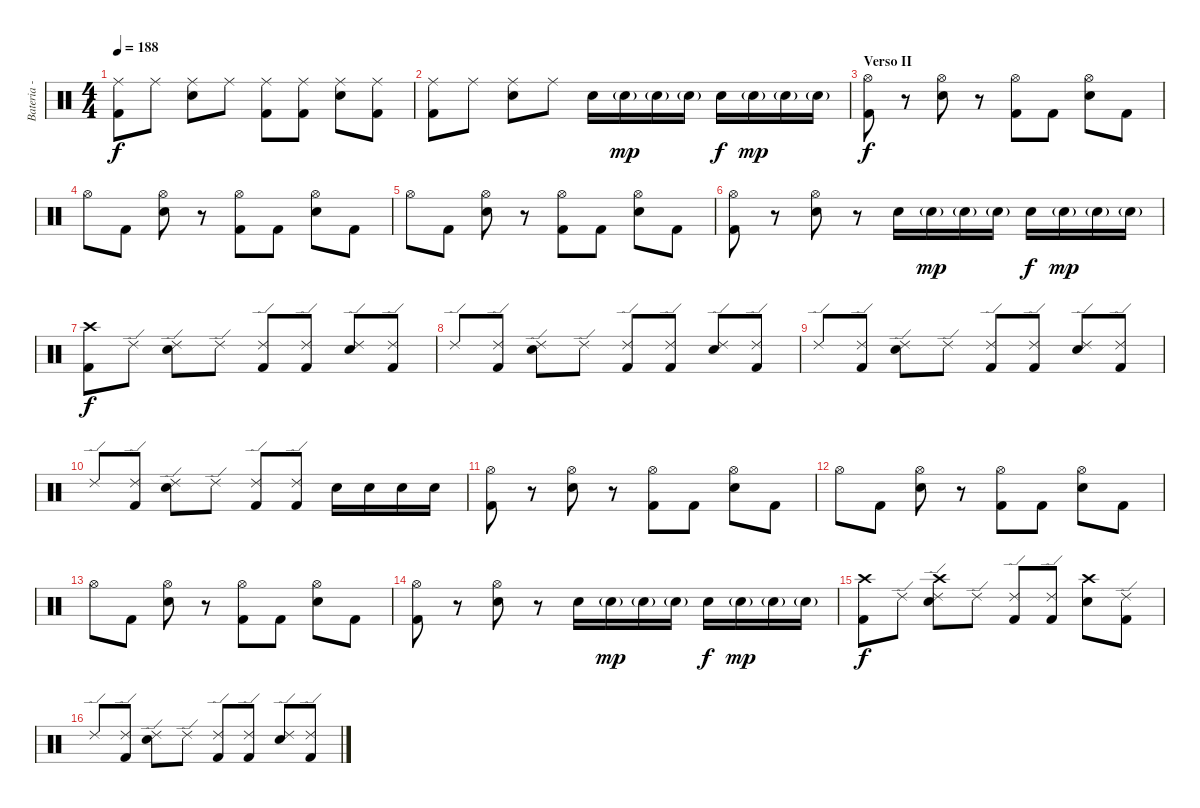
\track ("Bateria - Larzon" "Bateria - ") {instrument percussion}
\staff {score}
\articulation defaults
\ts (4 4)
\tempo 188
\clef neutral
\ks c
("Kick (hit) 2" "Ride (middle)").8{dy f} "Ride (middle)".8 ("Snare (hit) 2" "Ride (middle)").8 "Ride (middle)".8 ("Kick (hit) 2" "Ride (middle)").8 ("Kick (hit) 2" "Ride (middle)").8 ("Snare (hit) 2" "Ride (middle)").8 ("Kick (hit) 2" "Ride (middle)").8 |
("Kick (hit) 2" "Ride (middle)").8 "Ride (middle)".8 ("Snare (hit) 2" "Ride (middle)").8 "Ride (middle)".8 "Snare (hit) 2".16 "Snare (hit) 2"{g}.16{dy mp} "Snare (hit) 2"{g}.16 "Snare (hit) 2"{g}.16 "Snare (hit) 2".16{dy f} "Snare (hit) 2"{g}.16{dy mp} "Snare (hit) 2"{g}.16 "Snare (hit) 2"{g}.16 |
\section ("" "Verso II")
("Kick (hit) 2" "Hi-Hat (open)").8{dy f} r.8 ("Snare (hit) 2" "Hi-Hat (open)").8 r.8 ("Kick (hit) 2" "Hi-Hat (open)").8 "Kick (hit) 2".8 ("Snare (hit) 2" "Hi-Hat (open)").8 "Kick (hit) 2".8 |
"Hi-Hat (open)".8 "Kick (hit) 2".8 ("Snare (hit) 2" "Hi-Hat (open)").8 r.8 ("Kick (hit) 2" "Hi-Hat (open)").8 "Kick (hit) 2".8 ("Snare (hit) 2" "Hi-Hat (open)").8 "Kick (hit) 2".8 |
"Hi-Hat (open)".8 "Kick (hit) 2".8 ("Snare (hit) 2" "Hi-Hat (open)").8 r.8 ("Kick (hit) 2" "Hi-Hat (open)").8 "Kick (hit) 2".8 ("Snare (hit) 2" "Hi-Hat (open)").8 "Kick (hit) 2".8 |
("Kick (hit) 2" "Hi-Hat (open)").8 r.8 ("Snare (hit) 2" "Hi-Hat (open)").8 r.8 "Snare (hit) 2".16 "Snare (hit) 2"{g}.16{dy mp} "Snare (hit) 2"{g}.16 "Snare (hit) 2"{g}.16 "Snare (hit) 2".16{dy f} "Snare (hit) 2"{g}.16{dy mp} "Snare (hit) 2"{g}.16 "Snare (hit) 2"{g}.16 |
("Kick (hit) 2" "Crash high (hit)").8{dy f} "Ride (edge) 2".8 ("Snare (hit) 2" "Ride (edge) 2").8 "Ride (edge) 2".8 ("Kick (hit) 2" "Ride (edge) 2").8 ("Kick (hit) 2" "Ride (edge) 2").8 ("Snare (hit) 2" "Ride (edge) 2").8 ("Kick (hit) 2" "Ride (edge) 2").8 |
"Ride (edge) 2".8 ("Kick (hit) 2" "Ride (edge) 2").8 ("Snare (hit) 2" "Ride (edge) 2").8 "Ride (edge) 2".8 ("Kick (hit) 2" "Ride (edge) 2").8 ("Kick (hit) 2" "Ride (edge) 2").8 ("Snare (hit) 2" "Ride (edge) 2").8 ("Kick (hit) 2" "Ride (edge) 2").8 |
"Ride (edge) 2".8 ("Kick (hit) 2" "Ride (edge) 2").8 ("Snare (hit) 2" "Ride (edge) 2").8 "Ride (edge) 2".8 ("Kick (hit) 2" "Ride (edge) 2").8 ("Kick (hit) 2" "Ride (edge) 2").8 ("Snare (hit) 2" "Ride (edge) 2").8 ("Kick (hit) 2" "Ride (edge) 2").8 |
"Ride (edge) 2".8 ("Kick (hit) 2" "Ride (edge) 2").8 ("Snare (hit) 2" "Ride (edge) 2").8 "Ride (edge) 2".8 ("Kick (hit) 2" "Ride (edge) 2").8 ("Kick (hit) 2" "Ride (edge) 2").8 "Snare (hit) 2".16 "Snare (hit) 2".16 "Snare (hit) 2".16 "Snare (hit) 2".16 |
("Kick (hit) 2" "Hi-Hat (open)").8 r.8 ("Snare (hit) 2" "Hi-Hat (open)").8 r.8 ("Kick (hit) 2" "Hi-Hat (open)").8 "Kick (hit) 2".8 ("Snare (hit) 2" "Hi-Hat (open)").8 "Kick (hit) 2".8 |
"Hi-Hat (open)".8 "Kick (hit) 2".8 ("Snare (hit) 2" "Hi-Hat (open)").8 r.8 ("Kick (hit) 2" "Hi-Hat (open)").8 "Kick (hit) 2".8 ("Snare (hit) 2" "Hi-Hat (open)").8 "Kick (hit) 2".8 |
"Hi-Hat (open)".8 "Kick (hit) 2".8 ("Snare (hit) 2" "Hi-Hat (open)").8 r.8 ("Kick (hit) 2" "Hi-Hat (open)").8 "Kick (hit) 2".8 ("Snare (hit) 2" "Hi-Hat (open)").8 "Kick (hit) 2".8 |
("Kick (hit) 2" "Hi-Hat (open)").8 r.8 ("Snare (hit) 2" "Hi-Hat (open)").8 r.8 "Snare (hit) 2".16 "Snare (hit) 2"{g}.16{dy mp} "Snare (hit) 2"{g}.16 "Snare (hit) 2"{g}.16 "Snare (hit) 2".16{dy f} "Snare (hit) 2"{g}.16{dy mp} "Snare (hit) 2"{g}.16 "Snare (hit) 2"{g}.16 |
("Kick (hit) 2" "Crash high (hit)").8{dy f} "Ride (edge) 2".8 ("Snare (hit) 2" "Crash high (hit)" "Ride (edge) 2").8 "Ride (edge) 2".8 ("Kick (hit) 2" "Ride (edge) 2").8 ("Kick (hit) 2" "Ride (edge) 2").8 ("Snare (hit) 2" "Crash high (hit)").8 ("Kick (hit) 2" "Ride (edge) 2").8 |
"Ride (edge) 2".8 ("Kick (hit) 2" "Ride (edge) 2").8 ("Snare (hit) 2" "Ride (edge) 2").8 "Ride (edge) 2".8 ("Kick (hit) 2" "Ride (edge) 2").8 ("Kick (hit) 2" "Ride (edge) 2").8 ("Snare (hit) 2" "Ride (edge) 2").8 ("Kick (hit) 2" "Ride (edge) 2").8
